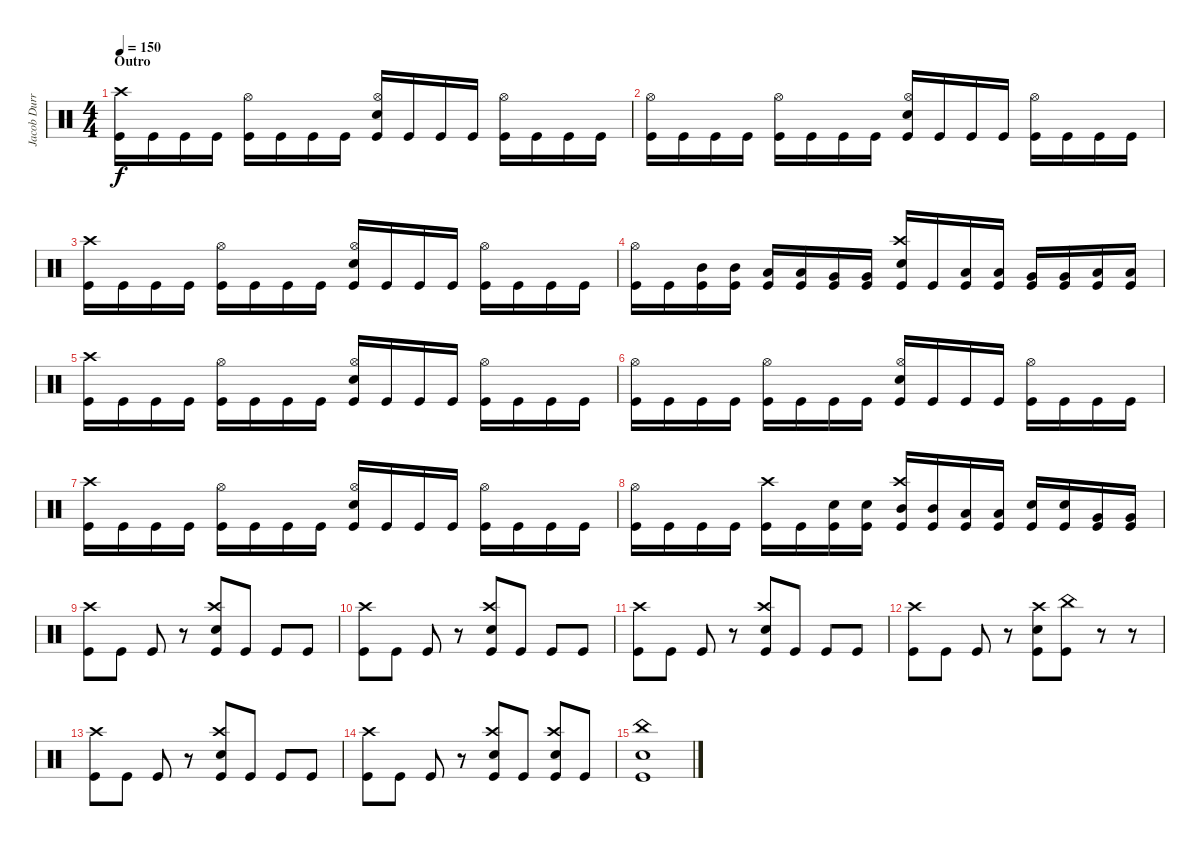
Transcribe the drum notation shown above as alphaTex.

\track ("Jacob Durret" "Jacob Durr") {instrument percussion}
\staff {score}
\articulation defaults
\ts (4 4)
\section ("" "Outro")
\tempo 150
\clef neutral
\ks c
("Kick (hit)" "Crash high (hit)").16{dy f} "Kick (hit)".16 "Kick (hit)".16 "Kick (hit)".16 ("Kick (hit)" "Hi-Hat (open)").16 "Kick (hit)".16 "Kick (hit)".16 "Kick (hit)".16 ("Kick (hit)" "Hi-Hat (open)" "Snare (hit) 2").16 "Kick (hit)".16 "Kick (hit)".16 "Kick (hit)".16 ("Kick (hit)" "Hi-Hat (open)").16 "Kick (hit)".16 "Kick (hit)".16 "Kick (hit)".16 |
("Kick (hit)" "Hi-Hat (open)").16 "Kick (hit)".16 "Kick (hit)".16 "Kick (hit)".16 ("Kick (hit)" "Hi-Hat (open)").16 "Kick (hit)".16 "Kick (hit)".16 "Kick (hit)".16 ("Kick (hit)" "Hi-Hat (open)" "Snare (hit) 2").16 "Kick (hit)".16 "Kick (hit)".16 "Kick (hit)".16 ("Kick (hit)" "Hi-Hat (open)").16 "Kick (hit)".16 "Kick (hit)".16 "Kick (hit)".16 |
("Kick (hit)" "Crash high (hit)").16 "Kick (hit)".16 "Kick (hit)".16 "Kick (hit)".16 ("Kick (hit)" "Hi-Hat (open)").16 "Kick (hit)".16 "Kick (hit)".16 "Kick (hit)".16 ("Kick (hit)" "Hi-Hat (open)" "Snare (hit) 2").16 "Kick (hit)".16 "Kick (hit)".16 "Kick (hit)".16 ("Kick (hit)" "Hi-Hat (open)").16 "Kick (hit)".16 "Kick (hit)".16 "Kick (hit)".16 |
("Kick (hit)" "Hi-Hat (open)").16 "Kick (hit)".16 ("Kick (hit)" "Mid Tom (hit)").16 ("Kick (hit)" "Mid Tom (hit)").16 ("Kick (hit)" "Low Tom (hit)").16 ("Kick (hit)" "Low Tom (hit)").16 ("Kick (hit)" "Very Low Tom (hit)").16 ("Kick (hit)" "Very Low Tom (hit)").16 ("Kick (hit)" "Crash high (hit)" "Snare (hit) 2").16 "Kick (hit)".16 ("Kick (hit)" "Low Tom (hit)").16 ("Kick (hit)" "Low Tom (hit)").16 ("Kick (hit)" "Very Low Tom (hit)").16 ("Kick (hit)" "Very Low Tom (hit)").16 ("Kick (hit)" "Low Floor Tom (hit)").16 ("Kick (hit)" "Low Floor Tom (hit)").16 |
("Kick (hit)" "Crash high (hit)").16 "Kick (hit)".16 "Kick (hit)".16 "Kick (hit)".16 ("Kick (hit)" "Hi-Hat (open)").16 "Kick (hit)".16 "Kick (hit)".16 "Kick (hit)".16 ("Kick (hit)" "Hi-Hat (open)" "Snare (hit) 2").16 "Kick (hit)".16 "Kick (hit)".16 "Kick (hit)".16 ("Kick (hit)" "Hi-Hat (open)").16 "Kick (hit)".16 "Kick (hit)".16 "Kick (hit)".16 |
("Kick (hit)" "Hi-Hat (open)").16 "Kick (hit)".16 "Kick (hit)".16 "Kick (hit)".16 ("Kick (hit)" "Hi-Hat (open)").16 "Kick (hit)".16 "Kick (hit)".16 "Kick (hit)".16 ("Kick (hit)" "Hi-Hat (open)" "Snare (hit) 2").16 "Kick (hit)".16 "Kick (hit)".16 "Kick (hit)".16 ("Kick (hit)" "Hi-Hat (open)").16 "Kick (hit)".16 "Kick (hit)".16 "Kick (hit)".16 |
("Kick (hit)" "Crash high (hit)").16 "Kick (hit)".16 "Kick (hit)".16 "Kick (hit)".16 ("Kick (hit)" "Hi-Hat (open)").16 "Kick (hit)".16 "Kick (hit)".16 "Kick (hit)".16 ("Kick (hit)" "Hi-Hat (open)" "Snare (hit) 2").16 "Kick (hit)".16 "Kick (hit)".16 "Kick (hit)".16 ("Kick (hit)" "Hi-Hat (open)").16 "Kick (hit)".16 "Kick (hit)".16 "Kick (hit)".16 |
("Kick (hit)" "Hi-Hat (open)").16 "Kick (hit)".16 "Kick (hit)".16 "Kick (hit)".16 ("Kick (hit)" "Crash high (hit)").16 "Kick (hit)".16 ("Snare (hit) 2" "Kick (hit)").16 ("Kick (hit)" "Snare (hit) 2").16 ("Kick (hit)" "Crash high (hit)" "Mid Tom (hit)").16 ("Kick (hit)" "Mid Tom (hit)").16 ("Kick (hit)" "Low Tom (hit)").16 ("Kick (hit)" "Low Tom (hit)").16 ("Kick (hit)" "Snare (hit) 2").16 ("Kick (hit)" "Snare (hit) 2").16 ("Kick (hit)" "Very Low Tom (hit)").16 ("Kick (hit)" "Very Low Tom (hit)").16 |
("Kick (hit)" "Crash high (hit)").8 "Kick (hit)".8 "Kick (hit)".8 r.8 ("Kick (hit)" "Crash high (hit)" "Snare (hit) 2").8 "Kick (hit)".8 "Kick (hit)".8 "Kick (hit)".8 |
("Kick (hit)" "Crash high (hit)").8 "Kick (hit)".8 "Kick (hit)".8 r.8 ("Kick (hit)" "Crash high (hit)" "Snare (hit) 2").8 "Kick (hit)".8 "Kick (hit)".8 "Kick (hit)".8 |
("Kick (hit)" "Crash high (hit)").8 "Kick (hit)".8 "Kick (hit)".8 r.8 ("Kick (hit)" "Crash high (hit)" "Snare (hit) 2").8 "Kick (hit)".8 "Kick (hit)".8 "Kick (hit)".8 |
("Kick (hit)" "Crash high (hit)").8 "Kick (hit)".8 "Kick (hit)".8 r.8 ("Kick (hit)" "Crash high (hit)" "Snare (hit) 2").8 ("Kick (hit)" "China (hit)").8 r.8 r.8 |
("Kick (hit)" "Crash high (hit)").8 "Kick (hit)".8 "Kick (hit)".8 r.8 ("Kick (hit)" "Crash high (hit)" "Snare (hit) 2").8 "Kick (hit)".8 "Kick (hit)".8 "Kick (hit)".8 |
("Kick (hit)" "Crash high (hit)").8 "Kick (hit)".8 "Kick (hit)".8 r.8 ("Kick (hit)" "Crash high (hit)" "Snare (hit) 2").8 "Kick (hit)".8 ("Kick (hit)" "Crash high (hit)" "Snare (hit) 2").8 "Kick (hit)".8 |
("China (hit)" "Snare (hit) 2" "Kick (hit)").1
